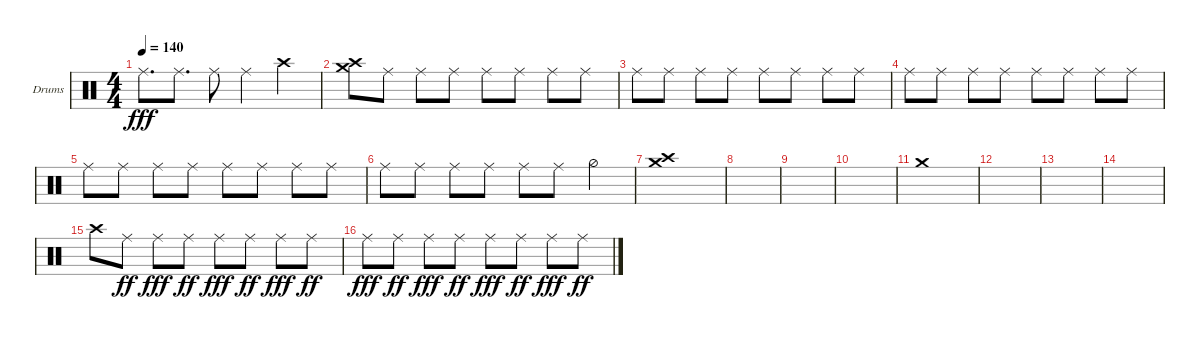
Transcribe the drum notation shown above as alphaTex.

\defaultSystemsLayout 4
\bracketExtendMode groupsimilarinstruments
\firstSystemTrackNameOrientation horizontal
\otherSystemsTrackNameOrientation horizontal
\track ("Helders" "Drums") {instrument percussion}
\staff {score}
\articulation defaults
\ts (4 4)
\tempo 140
\clef neutral
\ks c "Ride (middle)".8{d dy fff} "Ride (middle)".8{d} "Ride (middle)".8 "Ride (middle)".4 "Crash high (hit)".4
|
("Crash high (hit)" "Crash medium (hit)").8 "Ride (middle)".8 "Ride (middle)".8 "Ride (middle)".8 "Ride (middle)".8 "Ride (middle)".8 "Ride (middle)".8 "Ride (middle)".8 |
"Ride (middle)".8 "Ride (middle)".8 "Ride (middle)".8 "Ride (middle)".8 "Ride (middle)".8 "Ride (middle)".8 "Ride (middle)".8 "Ride (middle)".8 |
"Ride (middle)".8 "Ride (middle)".8 "Ride (middle)".8 "Ride (middle)".8 "Ride (middle)".8 "Ride (middle)".8 "Ride (middle)".8 "Ride (middle)".8 |
"Ride (middle)".8 "Ride (middle)".8 "Ride (middle)".8 "Ride (middle)".8 "Ride (middle)".8 "Ride (middle)".8 "Ride (middle)".8 "Ride (middle)".8 |
"Ride (middle)".8 "Ride (middle)".8 "Ride (middle)".8 "Ride (middle)".8 "Ride (middle)".8 "Ride (middle)".8 "Hi-Hat (half)".4 |
("Crash high (hit)" "Crash medium (hit)").1 |
|
|
|
"Crash medium (hit)".1 |
|
|
|
"Crash high (hit)".8 "Ride (middle)".8{dy ff} "Ride (middle)".8{dy fff} "Ride (middle)".8{dy ff} "Ride (middle)".8{dy fff} "Ride (middle)".8{dy ff} "Ride (middle)".8{dy fff} "Ride (middle)".8{dy ff} |
"Ride (middle)".8{dy fff} "Ride (middle)".8{dy ff} "Ride (middle)".8{dy fff} "Ride (middle)".8{dy ff} "Ride (middle)".8{dy fff} "Ride (middle)".8{dy ff} "Ride (middle)".8{dy fff} "Ride (middle)".8{dy ff}
